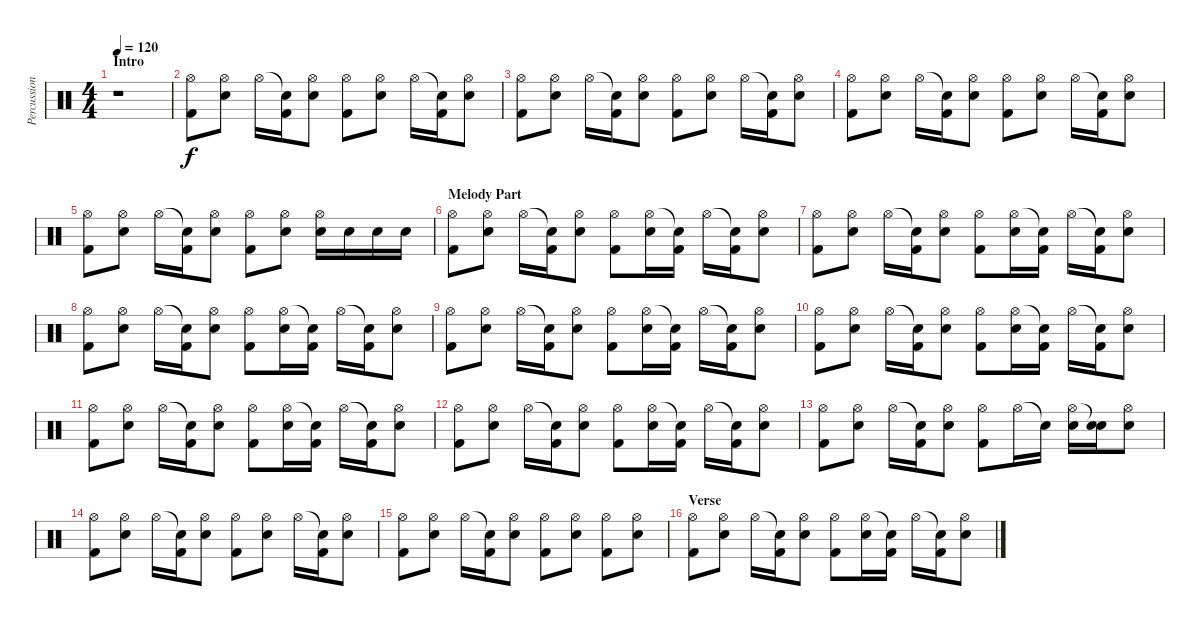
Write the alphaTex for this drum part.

\track ("Percussion" "Percussion") {instrument percussion}
\staff {score}
\articulation defaults
\ts (4 4)
\section ("" "Intro")
\tempo 120
\clef neutral
\ks c
r.1{dy f} |
("Hi-Hat (open)" "Kick (hit) 2").8 ("Hi-Hat (open)" "Electric Snare (hit)").8 "Hi-Hat (open)".16 ("Snare (hit)"{t} "Kick (hit) 2").16 ("Hi-Hat (open)" "Electric Snare (hit)").8 ("Hi-Hat (open)" "Kick (hit) 2").8 ("Hi-Hat (open)" "Electric Snare (hit)").8 "Hi-Hat (open)".16 ("Snare (hit)"{t} "Kick (hit) 2").16 ("Hi-Hat (open)" "Electric Snare (hit)").8 |
("Hi-Hat (open)" "Kick (hit) 2").8 ("Hi-Hat (open)" "Electric Snare (hit)").8 "Hi-Hat (open)".16 ("Snare (hit)"{t} "Kick (hit) 2").16 ("Hi-Hat (open)" "Electric Snare (hit)").8 ("Hi-Hat (open)" "Kick (hit) 2").8 ("Hi-Hat (open)" "Electric Snare (hit)").8 "Hi-Hat (open)".16 ("Snare (hit)"{t} "Kick (hit) 2").16 ("Hi-Hat (open)" "Electric Snare (hit)").8 |
("Hi-Hat (open)" "Kick (hit) 2").8 ("Hi-Hat (open)" "Electric Snare (hit)").8 "Hi-Hat (open)".16 ("Snare (hit)"{t} "Kick (hit) 2").16 ("Hi-Hat (open)" "Electric Snare (hit)").8 ("Hi-Hat (open)" "Kick (hit) 2").8 ("Hi-Hat (open)" "Electric Snare (hit)").8 "Hi-Hat (open)".16 ("Snare (hit)"{t} "Kick (hit) 2").16 ("Hi-Hat (open)" "Electric Snare (hit)").8 |
("Hi-Hat (open)" "Kick (hit) 2").8 ("Hi-Hat (open)" "Electric Snare (hit)").8 "Hi-Hat (open)".16 ("Snare (hit)"{t} "Kick (hit) 2").16 ("Hi-Hat (open)" "Electric Snare (hit)").8 ("Hi-Hat (open)" "Kick (hit) 2").8 ("Hi-Hat (open)" "Electric Snare (hit)").8 ("Hi-Hat (open)" "Electric Snare (hit)").16 "Electric Snare (hit)".16 "Electric Snare (hit)".16 "Electric Snare (hit)".16 |
\section ("" "Melody Part")
("Hi-Hat (open)" "Kick (hit) 2").8 ("Hi-Hat (open)" "Electric Snare (hit)").8 "Hi-Hat (open)".16 ("Snare (hit)"{t} "Kick (hit) 2").16 ("Hi-Hat (open)" "Electric Snare (hit)").8 ("Hi-Hat (open)" "Kick (hit) 2").8 ("Hi-Hat (open)" "Electric Snare (hit)").16 ("Snare (hit)"{t} "Kick (hit) 2").16 "Hi-Hat (open)".16 ("Snare (hit)"{t} "Kick (hit) 2").16 ("Hi-Hat (open)" "Electric Snare (hit)").8 |
("Hi-Hat (open)" "Kick (hit) 2").8 ("Hi-Hat (open)" "Electric Snare (hit)").8 "Hi-Hat (open)".16 ("Snare (hit)"{t} "Kick (hit) 2").16 ("Hi-Hat (open)" "Electric Snare (hit)").8 ("Hi-Hat (open)" "Kick (hit) 2").8 ("Hi-Hat (open)" "Electric Snare (hit)").16 ("Snare (hit)"{t} "Kick (hit) 2").16 "Hi-Hat (open)".16 ("Snare (hit)"{t} "Kick (hit) 2").16 ("Hi-Hat (open)" "Electric Snare (hit)").8 |
("Hi-Hat (open)" "Kick (hit) 2").8 ("Hi-Hat (open)" "Electric Snare (hit)").8 "Hi-Hat (open)".16 ("Snare (hit)"{t} "Kick (hit) 2").16 ("Hi-Hat (open)" "Electric Snare (hit)").8 ("Hi-Hat (open)" "Kick (hit) 2").8 ("Hi-Hat (open)" "Electric Snare (hit)").16 ("Snare (hit)"{t} "Kick (hit) 2").16 "Hi-Hat (open)".16 ("Snare (hit)"{t} "Kick (hit) 2").16 ("Hi-Hat (open)" "Electric Snare (hit)").8 |
("Hi-Hat (open)" "Kick (hit) 2").8 ("Hi-Hat (open)" "Electric Snare (hit)").8 "Hi-Hat (open)".16 ("Snare (hit)"{t} "Kick (hit) 2").16 ("Hi-Hat (open)" "Electric Snare (hit)").8 ("Hi-Hat (open)" "Kick (hit) 2").8 ("Hi-Hat (open)" "Electric Snare (hit)").16 ("Snare (hit)"{t} "Kick (hit) 2").16 "Hi-Hat (open)".16 ("Snare (hit)"{t} "Kick (hit) 2").16 ("Hi-Hat (open)" "Electric Snare (hit)").8 |
("Hi-Hat (open)" "Kick (hit) 2").8 ("Hi-Hat (open)" "Electric Snare (hit)").8 "Hi-Hat (open)".16 ("Snare (hit)"{t} "Kick (hit) 2").16 ("Hi-Hat (open)" "Electric Snare (hit)").8 ("Hi-Hat (open)" "Kick (hit) 2").8 ("Hi-Hat (open)" "Electric Snare (hit)").16 ("Snare (hit)"{t} "Kick (hit) 2").16 "Hi-Hat (open)".16 ("Snare (hit)"{t} "Kick (hit) 2").16 ("Hi-Hat (open)" "Electric Snare (hit)").8 |
("Hi-Hat (open)" "Kick (hit) 2").8 ("Hi-Hat (open)" "Electric Snare (hit)").8 "Hi-Hat (open)".16 ("Snare (hit)"{t} "Kick (hit) 2").16 ("Hi-Hat (open)" "Electric Snare (hit)").8 ("Hi-Hat (open)" "Kick (hit) 2").8 ("Hi-Hat (open)" "Electric Snare (hit)").16 ("Snare (hit)"{t} "Kick (hit) 2").16 "Hi-Hat (open)".16 ("Snare (hit)"{t} "Kick (hit) 2").16 ("Hi-Hat (open)" "Electric Snare (hit)").8 |
("Hi-Hat (open)" "Kick (hit) 2").8 ("Hi-Hat (open)" "Electric Snare (hit)").8 "Hi-Hat (open)".16 ("Snare (hit)"{t} "Kick (hit) 2").16 ("Hi-Hat (open)" "Electric Snare (hit)").8 ("Hi-Hat (open)" "Kick (hit) 2").8 ("Hi-Hat (open)" "Electric Snare (hit)").16 ("Snare (hit)"{t} "Kick (hit) 2").16 "Hi-Hat (open)".16 ("Snare (hit)"{t} "Kick (hit) 2").16 ("Hi-Hat (open)" "Electric Snare (hit)").8 |
("Hi-Hat (open)" "Kick (hit) 2").8 ("Hi-Hat (open)" "Electric Snare (hit)").8 "Hi-Hat (open)".16 ("Snare (hit)"{t} "Kick (hit) 2").16 ("Hi-Hat (open)" "Electric Snare (hit)").8 ("Hi-Hat (open)" "Kick (hit) 2").8 "Hi-Hat (open)".16 "Snare (hit)"{t}.16 ("Hi-Hat (open)" "Electric Snare (hit)").16 ("Snare (hit)"{t} "Electric Snare (hit)").16 ("Hi-Hat (open)" "Electric Snare (hit)").8 |
("Hi-Hat (open)" "Kick (hit) 2").8 ("Hi-Hat (open)" "Electric Snare (hit)").8 "Hi-Hat (open)".16 ("Snare (hit)"{t} "Kick (hit) 2").16 ("Hi-Hat (open)" "Electric Snare (hit)").8 ("Hi-Hat (open)" "Kick (hit) 2").8 ("Hi-Hat (open)" "Electric Snare (hit)").8 "Hi-Hat (open)".16 ("Snare (hit)"{t} "Kick (hit) 2").16 ("Hi-Hat (open)" "Electric Snare (hit)").8 |
("Hi-Hat (open)" "Kick (hit) 2").8 ("Hi-Hat (open)" "Electric Snare (hit)").8 "Hi-Hat (open)".16 ("Snare (hit)"{t} "Kick (hit) 2").16 ("Hi-Hat (open)" "Electric Snare (hit)").8 ("Hi-Hat (open)" "Kick (hit) 2").8 ("Hi-Hat (open)" "Electric Snare (hit)").8 ("Hi-Hat (open)" "Kick (hit) 2").8 ("Hi-Hat (open)" "Electric Snare (hit)").8 |
\section ("" "Verse")
("Hi-Hat (open)" "Kick (hit) 2").8 ("Hi-Hat (open)" "Electric Snare (hit)").8 "Hi-Hat (open)".16 ("Snare (hit)"{t} "Kick (hit) 2").16 ("Hi-Hat (open)" "Electric Snare (hit)").8 ("Hi-Hat (open)" "Kick (hit) 2").8 ("Hi-Hat (open)" "Electric Snare (hit)").16 ("Snare (hit)"{t} "Kick (hit) 2").16 "Hi-Hat (open)".16 ("Snare (hit)"{t} "Kick (hit) 2").16 ("Hi-Hat (open)" "Electric Snare (hit)").8
